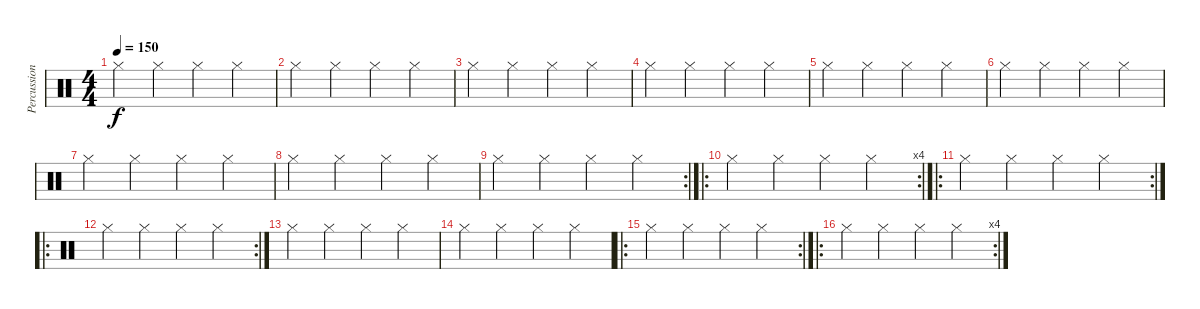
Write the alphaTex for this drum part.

\track ("Percussioni" "Percussion") {instrument percussion}
\staff {score}
\articulation defaults
\ts (4 4)
\tempo 150
\clef neutral
\ks c "Hi-Hat (closed)".4{dy f} "Hi-Hat (closed)".4 "Hi-Hat (closed)".4 "Hi-Hat (closed)".4
|
"Hi-Hat (closed)".4 "Hi-Hat (closed)".4 "Hi-Hat (closed)".4 "Hi-Hat (closed)".4 |
"Hi-Hat (closed)".4 "Hi-Hat (closed)".4 "Hi-Hat (closed)".4 "Hi-Hat (closed)".4 |
"Hi-Hat (closed)".4 "Hi-Hat (closed)".4 "Hi-Hat (closed)".4 "Hi-Hat (closed)".4 |
"Hi-Hat (closed)".4 "Hi-Hat (closed)".4 "Hi-Hat (closed)".4 "Hi-Hat (closed)".4 |
"Hi-Hat (closed)".4 "Hi-Hat (closed)".4 "Hi-Hat (closed)".4 "Hi-Hat (closed)".4 |
"Hi-Hat (closed)".4 "Hi-Hat (closed)".4 "Hi-Hat (closed)".4 "Hi-Hat (closed)".4 |
"Hi-Hat (closed)".4 "Hi-Hat (closed)".4 "Hi-Hat (closed)".4 "Hi-Hat (closed)".4 |
\rc 2 "Hi-Hat (closed)".4 "Hi-Hat (closed)".4 "Hi-Hat (closed)".4 "Hi-Hat (closed)".4
|
\ro
\rc 4 "Hi-Hat (closed)".4 "Hi-Hat (closed)".4 "Hi-Hat (closed)".4 "Hi-Hat (closed)".4
|
\ro
\rc 2 "Hi-Hat (closed)".4 "Hi-Hat (closed)".4 "Hi-Hat (closed)".4 "Hi-Hat (closed)".4
|
\ro
\rc 2 "Hi-Hat (closed)".4 "Hi-Hat (closed)".4 "Hi-Hat (closed)".4 "Hi-Hat (closed)".4
|
"Hi-Hat (closed)".4 "Hi-Hat (closed)".4 "Hi-Hat (closed)".4 "Hi-Hat (closed)".4 |
"Hi-Hat (closed)".4 "Hi-Hat (closed)".4 "Hi-Hat (closed)".4 "Hi-Hat (closed)".4 |
\ro
\rc 2 "Hi-Hat (closed)".4 "Hi-Hat (closed)".4 "Hi-Hat (closed)".4 "Hi-Hat (closed)".4
|
\ro
\rc 4 "Hi-Hat (closed)".4 "Hi-Hat (closed)".4 "Hi-Hat (closed)".4 "Hi-Hat (closed)".4
